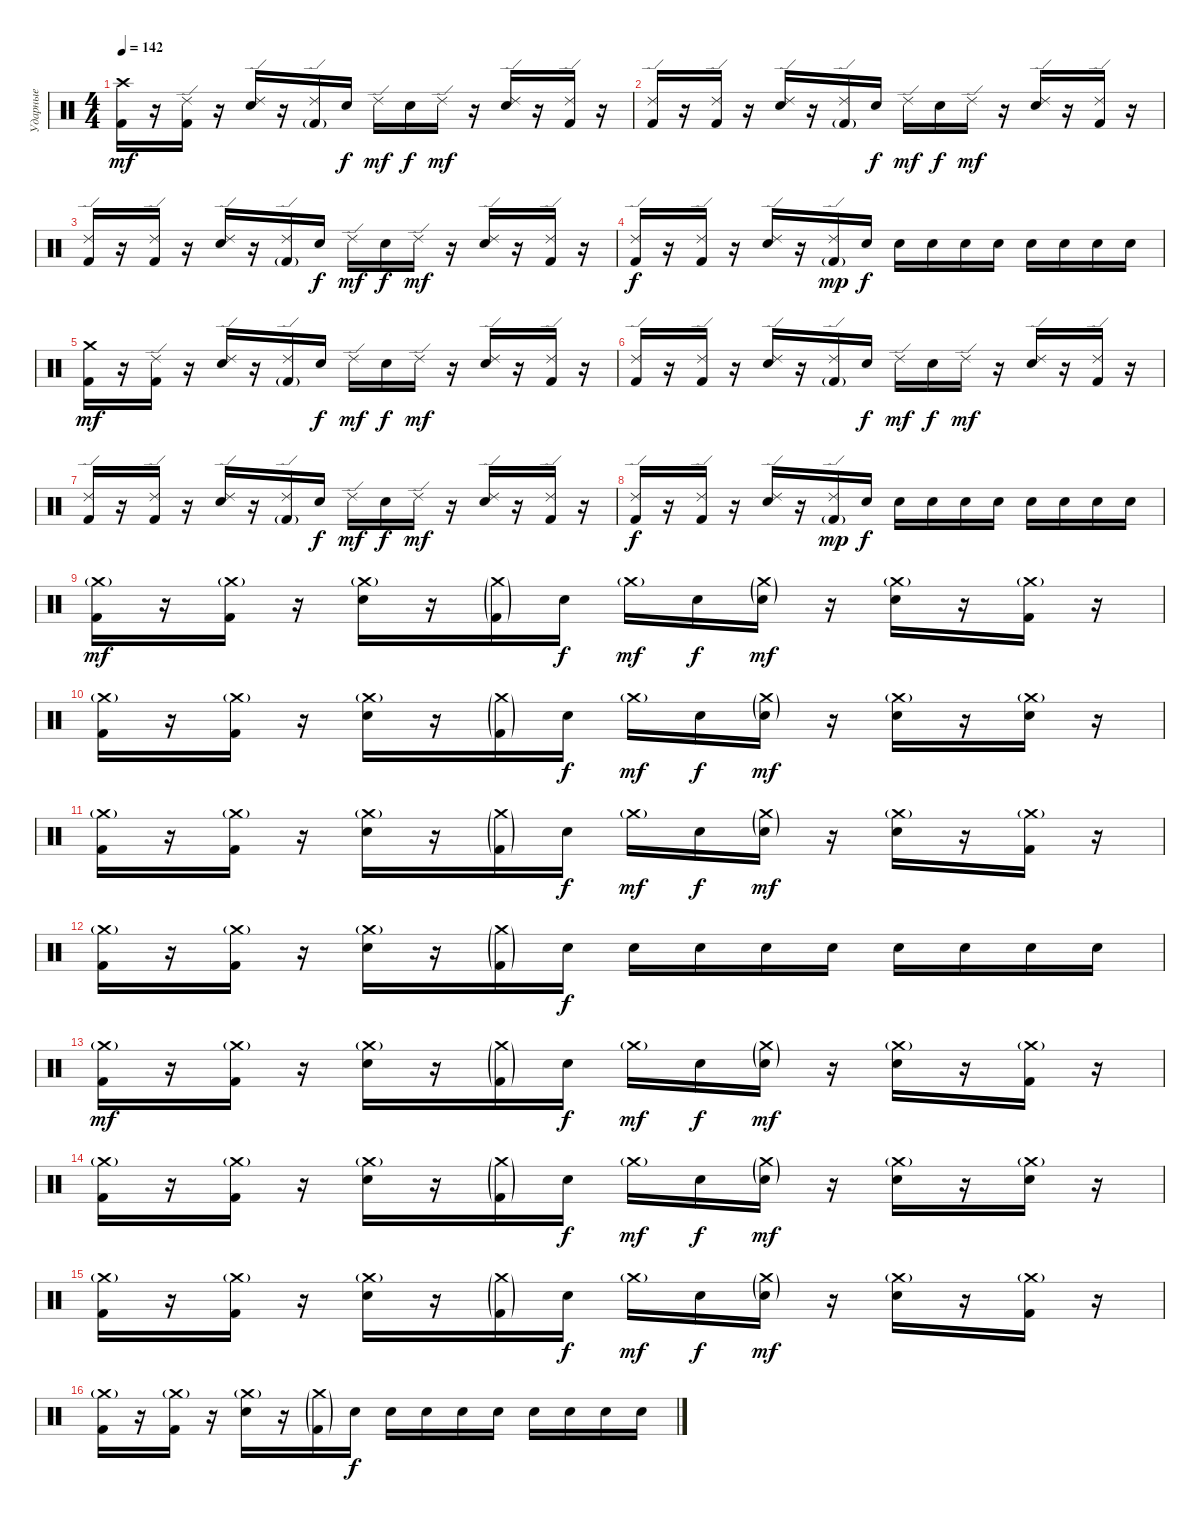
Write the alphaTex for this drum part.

\track ("Ударные" "Ударные") {instrument percussion}
\staff {score}
\articulation defaults
\ts (4 4)
\tempo 142
\clef neutral
\ks c
("Kick (hit) 2" "Crash high (hit)").16{dy mf} r.16 ("Kick (hit) 2" "Ride (edge) 2").16 r.16 ("Electric Snare (hit)" "Ride (edge) 2").16 r.16 ("Kick (hit) 2"{g} "Ride (edge) 2").16 "Electric Snare (hit)".16{dy f} "Ride (edge) 2".16{dy mf} "Electric Snare (hit)".16{dy f} "Ride (edge) 2".16{dy mf} r.16 ("Electric Snare (hit)" "Ride (edge) 2").16 r.16 ("Kick (hit) 2" "Ride (edge) 2").16 r.16 |
("Kick (hit) 2" "Ride (edge) 2").16 r.16 ("Kick (hit) 2" "Ride (edge) 2").16 r.16 ("Electric Snare (hit)" "Ride (edge) 2").16 r.16 ("Kick (hit) 2"{g} "Ride (edge) 2").16 "Electric Snare (hit)".16{dy f} "Ride (edge) 2".16{dy mf} "Electric Snare (hit)".16{dy f} "Ride (edge) 2".16{dy mf} r.16 ("Electric Snare (hit)" "Ride (edge) 2").16 r.16 ("Kick (hit) 2" "Ride (edge) 2").16 r.16 |
("Kick (hit) 2" "Ride (edge) 2").16 r.16 ("Kick (hit) 2" "Ride (edge) 2").16 r.16 ("Electric Snare (hit)" "Ride (edge) 2").16 r.16 ("Kick (hit) 2"{g} "Ride (edge) 2").16 "Electric Snare (hit)".16{dy f} "Ride (edge) 2".16{dy mf} "Electric Snare (hit)".16{dy f} "Ride (edge) 2".16{dy mf} r.16 ("Electric Snare (hit)" "Ride (edge) 2").16 r.16 ("Kick (hit) 2" "Ride (edge) 2").16 r.16 |
("Kick (hit) 2" "Ride (edge) 2").16{dy f} r.16 ("Kick (hit) 2" "Ride (edge) 2").16 r.16 ("Electric Snare (hit)" "Ride (edge) 2").16 r.16 ("Kick (hit) 2"{g} "Ride (edge) 2").16{dy mp} "Electric Snare (hit)".16{dy f} "Electric Snare (hit)".16 "Electric Snare (hit)".16 "Electric Snare (hit)".16 "Electric Snare (hit)".16 "Electric Snare (hit)".16 "Electric Snare (hit)".16 "Electric Snare (hit)".16 "Electric Snare (hit)".16 |
("Kick (hit) 2" "Crash medium (hit)").16{dy mf} r.16 ("Kick (hit) 2" "Ride (edge) 2").16 r.16 ("Electric Snare (hit)" "Ride (edge) 2").16 r.16 ("Kick (hit) 2"{g} "Ride (edge) 2").16 "Electric Snare (hit)".16{dy f} "Ride (edge) 2".16{dy mf} "Electric Snare (hit)".16{dy f} "Ride (edge) 2".16{dy mf} r.16 ("Electric Snare (hit)" "Ride (edge) 2").16 r.16 ("Kick (hit) 2" "Ride (edge) 2").16 r.16 |
("Kick (hit) 2" "Ride (edge) 2").16 r.16 ("Kick (hit) 2" "Ride (edge) 2").16 r.16 ("Electric Snare (hit)" "Ride (edge) 2").16 r.16 ("Kick (hit) 2"{g} "Ride (edge) 2").16 "Electric Snare (hit)".16{dy f} "Ride (edge) 2".16{dy mf} "Electric Snare (hit)".16{dy f} "Ride (edge) 2".16{dy mf} r.16 ("Electric Snare (hit)" "Ride (edge) 2").16 r.16 ("Kick (hit) 2" "Ride (edge) 2").16 r.16 |
("Kick (hit) 2" "Ride (edge) 2").16 r.16 ("Kick (hit) 2" "Ride (edge) 2").16 r.16 ("Electric Snare (hit)" "Ride (edge) 2").16 r.16 ("Kick (hit) 2"{g} "Ride (edge) 2").16 "Electric Snare (hit)".16{dy f} "Ride (edge) 2".16{dy mf} "Electric Snare (hit)".16{dy f} "Ride (edge) 2".16{dy mf} r.16 ("Electric Snare (hit)" "Ride (edge) 2").16 r.16 ("Kick (hit) 2" "Ride (edge) 2").16 r.16 |
("Kick (hit) 2" "Ride (edge) 2").16{dy f} r.16 ("Kick (hit) 2" "Ride (edge) 2").16 r.16 ("Electric Snare (hit)" "Ride (edge) 2").16 r.16 ("Kick (hit) 2"{g} "Ride (edge) 2").16{dy mp} "Electric Snare (hit)".16{dy f} "Electric Snare (hit)".16 "Electric Snare (hit)".16 "Electric Snare (hit)".16 "Electric Snare (hit)".16 "Electric Snare (hit)".16 "Electric Snare (hit)".16 "Electric Snare (hit)".16 "Electric Snare (hit)".16 |
("Kick (hit) 2" "Crash medium (hit)"{g}).16{dy mf} r.16 ("Kick (hit) 2" "Crash medium (hit)"{g}).16 r.16 ("Electric Snare (hit)" "Crash medium (hit)"{g}).16 r.16 ("Kick (hit) 2"{g} "Crash medium (hit)"{g}).16 "Electric Snare (hit)".16{dy f} "Crash medium (hit)"{g}.16{dy mf} "Electric Snare (hit)".16{dy f} ("Electric Snare (hit)"{g} "Crash medium (hit)"{g}).16{dy mf} r.16 ("Electric Snare (hit)" "Crash medium (hit)"{g}).16 r.16 ("Kick (hit) 2" "Crash medium (hit)"{g}).16 r.16 |
("Kick (hit) 2" "Crash medium (hit)"{g}).16 r.16 ("Kick (hit) 2" "Crash medium (hit)"{g}).16 r.16 ("Electric Snare (hit)" "Crash medium (hit)"{g}).16 r.16 ("Kick (hit) 2"{g} "Crash medium (hit)"{g}).16 "Electric Snare (hit)".16{dy f} "Crash medium (hit)"{g}.16{dy mf} "Electric Snare (hit)".16{dy f} ("Electric Snare (hit)"{g} "Crash medium (hit)"{g}).16{dy mf} r.16 ("Electric Snare (hit)" "Crash medium (hit)"{g}).16 r.16 ("Electric Snare (hit)" "Crash medium (hit)"{g}).16 r.16 |
("Kick (hit) 2" "Crash medium (hit)"{g}).16 r.16 ("Kick (hit) 2" "Crash medium (hit)"{g}).16 r.16 ("Electric Snare (hit)" "Crash medium (hit)"{g}).16 r.16 ("Kick (hit) 2"{g} "Crash medium (hit)"{g}).16 "Electric Snare (hit)".16{dy f} "Crash medium (hit)"{g}.16{dy mf} "Electric Snare (hit)".16{dy f} ("Electric Snare (hit)"{g} "Crash medium (hit)"{g}).16{dy mf} r.16 ("Electric Snare (hit)" "Crash medium (hit)"{g}).16 r.16 ("Kick (hit) 2" "Crash medium (hit)"{g}).16 r.16 |
("Kick (hit) 2" "Crash medium (hit)"{g}).16 r.16 ("Kick (hit) 2" "Crash medium (hit)"{g}).16 r.16 ("Electric Snare (hit)" "Crash medium (hit)"{g}).16 r.16 ("Kick (hit) 2"{g} "Crash medium (hit)"{g}).16 "Electric Snare (hit)".16{dy f} "Electric Snare (hit)".16 "Electric Snare (hit)".16 "Electric Snare (hit)".16 "Electric Snare (hit)".16 "Electric Snare (hit)".16 "Electric Snare (hit)".16 "Electric Snare (hit)".16 "Electric Snare (hit)".16 |
("Kick (hit) 2" "Crash medium (hit)"{g}).16{dy mf} r.16 ("Kick (hit) 2" "Crash medium (hit)"{g}).16 r.16 ("Electric Snare (hit)" "Crash medium (hit)"{g}).16 r.16 ("Kick (hit) 2"{g} "Crash medium (hit)"{g}).16 "Electric Snare (hit)".16{dy f} "Crash medium (hit)"{g}.16{dy mf} "Electric Snare (hit)".16{dy f} ("Electric Snare (hit)"{g} "Crash medium (hit)"{g}).16{dy mf} r.16 ("Electric Snare (hit)" "Crash medium (hit)"{g}).16 r.16 ("Kick (hit) 2" "Crash medium (hit)"{g}).16 r.16 |
("Kick (hit) 2" "Crash medium (hit)"{g}).16 r.16 ("Kick (hit) 2" "Crash medium (hit)"{g}).16 r.16 ("Electric Snare (hit)" "Crash medium (hit)"{g}).16 r.16 ("Kick (hit) 2"{g} "Crash medium (hit)"{g}).16 "Electric Snare (hit)".16{dy f} "Crash medium (hit)"{g}.16{dy mf} "Electric Snare (hit)".16{dy f} ("Electric Snare (hit)"{g} "Crash medium (hit)"{g}).16{dy mf} r.16 ("Electric Snare (hit)" "Crash medium (hit)"{g}).16 r.16 ("Electric Snare (hit)" "Crash medium (hit)"{g}).16 r.16 |
("Kick (hit) 2" "Crash medium (hit)"{g}).16 r.16 ("Kick (hit) 2" "Crash medium (hit)"{g}).16 r.16 ("Electric Snare (hit)" "Crash medium (hit)"{g}).16 r.16 ("Kick (hit) 2"{g} "Crash medium (hit)"{g}).16 "Electric Snare (hit)".16{dy f} "Crash medium (hit)"{g}.16{dy mf} "Electric Snare (hit)".16{dy f} ("Electric Snare (hit)"{g} "Crash medium (hit)"{g}).16{dy mf} r.16 ("Electric Snare (hit)" "Crash medium (hit)"{g}).16 r.16 ("Kick (hit) 2" "Crash medium (hit)"{g}).16 r.16 |
("Kick (hit) 2" "Crash medium (hit)"{g}).16 r.16 ("Kick (hit) 2" "Crash medium (hit)"{g}).16 r.16 ("Electric Snare (hit)" "Crash medium (hit)"{g}).16 r.16 ("Kick (hit) 2"{g} "Crash medium (hit)"{g}).16 "Electric Snare (hit)".16{dy f} "Electric Snare (hit)".16 "Electric Snare (hit)".16 "Electric Snare (hit)".16 "Electric Snare (hit)".16 "Electric Snare (hit)".16 "Electric Snare (hit)".16 "Electric Snare (hit)".16 "Electric Snare (hit)".16
